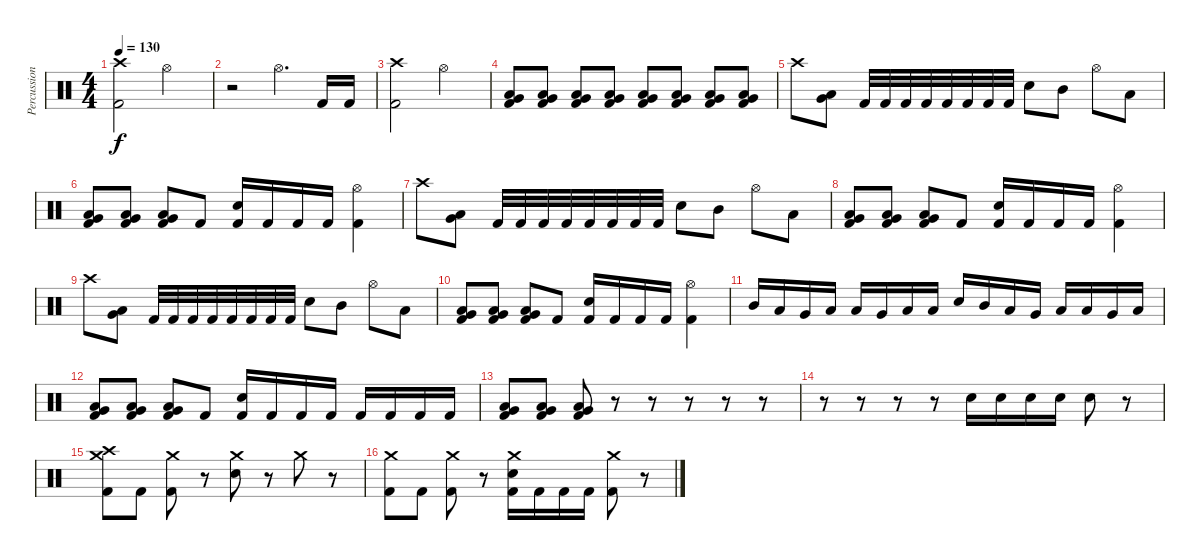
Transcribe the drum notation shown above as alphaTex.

\track ("Percussion" "Percussion") {instrument percussion}
\staff {score}
\articulation defaults
\ts (4 4)
\tempo 130
\clef neutral
\ks c
("Crash high (hit)" "Kick (hit) 2").2{dy f} "Hi-Hat (open)".2 |
r.2 "Hi-Hat (open)".4{d} "Kick (hit) 2".16 "Kick (hit) 2".16 |
("Crash high (hit)" "Kick (hit) 2").2 "Hi-Hat (open)".2 |
("Very Low Tom (hit)" "Low Floor Tom (hit)" "Kick (hit) 2").8 ("Very Low Tom (hit)" "Low Floor Tom (hit)" "Kick (hit) 2").8 ("Very Low Tom (hit)" "Low Floor Tom (hit)" "Kick (hit) 2").8 ("Very Low Tom (hit)" "Low Floor Tom (hit)" "Kick (hit) 2").8 ("Very Low Tom (hit)" "Low Floor Tom (hit)" "Kick (hit) 2").8 ("Very Low Tom (hit)" "Low Floor Tom (hit)" "Kick (hit) 2").8 ("Very Low Tom (hit)" "Low Floor Tom (hit)" "Kick (hit) 2").8 ("Very Low Tom (hit)" "Low Floor Tom (hit)" "Kick (hit) 2").8 |
"Crash high (hit)".8 ("Very Low Tom (hit)" "Low Floor Tom (hit)").8 "Kick (hit) 2".32 "Kick (hit) 2".32 "Kick (hit) 2".32 "Kick (hit) 2".32 "Kick (hit) 2".32 "Kick (hit) 2".32 "Kick (hit) 2".32 "Kick (hit) 2".32 "Electric Snare (hit)".8 "Mid Tom (hit)".8 "Hi-Hat (open)".8 "Low Tom (hit)".8 |
("Very Low Tom (hit)" "Low Floor Tom (hit)" "Kick (hit) 2").8 ("Very Low Tom (hit)" "Low Floor Tom (hit)" "Kick (hit) 2").8 ("Very Low Tom (hit)" "Low Floor Tom (hit)" "Kick (hit) 2").8 "Kick (hit) 2".8 ("Electric Snare (hit)" "Kick (hit) 2").16 "Kick (hit) 2".16 "Kick (hit) 2".16 "Kick (hit) 2".16 ("Hi-Hat (open)" "Kick (hit) 2").4 |
"Crash high (hit)".8 ("Very Low Tom (hit)" "Low Floor Tom (hit)").8 "Kick (hit) 2".32 "Kick (hit) 2".32 "Kick (hit) 2".32 "Kick (hit) 2".32 "Kick (hit) 2".32 "Kick (hit) 2".32 "Kick (hit) 2".32 "Kick (hit) 2".32 "Electric Snare (hit)".8 "Mid Tom (hit)".8 "Hi-Hat (open)".8 "Low Tom (hit)".8 |
("Very Low Tom (hit)" "Low Floor Tom (hit)" "Kick (hit) 2").8 ("Very Low Tom (hit)" "Low Floor Tom (hit)" "Kick (hit) 2").8 ("Very Low Tom (hit)" "Low Floor Tom (hit)" "Kick (hit) 2").8 "Kick (hit) 2".8 ("Electric Snare (hit)" "Kick (hit) 2").16 "Kick (hit) 2".16 "Kick (hit) 2".16 "Kick (hit) 2".16 ("Hi-Hat (open)" "Kick (hit) 2").4 |
"Crash high (hit)".8 ("Very Low Tom (hit)" "Low Floor Tom (hit)").8 "Kick (hit) 2".32 "Kick (hit) 2".32 "Kick (hit) 2".32 "Kick (hit) 2".32 "Kick (hit) 2".32 "Kick (hit) 2".32 "Kick (hit) 2".32 "Kick (hit) 2".32 "Electric Snare (hit)".8 "Mid Tom (hit)".8 "Hi-Hat (open)".8 "Low Tom (hit)".8 |
("Very Low Tom (hit)" "Low Floor Tom (hit)" "Kick (hit) 2").8 ("Very Low Tom (hit)" "Low Floor Tom (hit)" "Kick (hit) 2").8 ("Very Low Tom (hit)" "Low Floor Tom (hit)" "Kick (hit) 2").8 "Kick (hit) 2".8 ("Electric Snare (hit)" "Kick (hit) 2").16 "Kick (hit) 2".16 "Kick (hit) 2".16 "Kick (hit) 2".16 ("Hi-Hat (open)" "Kick (hit) 2").4 |
"Mid Tom (hit)".16 "Low Tom (hit)".16 "Very Low Tom (hit)".16 "Low Floor Tom (hit)".16 "Low Tom (hit)".16 "Very Low Tom (hit)".16 "Low Floor Tom (hit)".16 "Low Tom (hit)".16 "Electric Snare (hit)".16 "Mid Tom (hit)".16 "Low Tom (hit)".16 "Very Low Tom (hit)".16 "Low Floor Tom (hit)".16 "Low Tom (hit)".16 "Very Low Tom (hit)".16 "Low Floor Tom (hit)".16 |
("Very Low Tom (hit)" "Low Floor Tom (hit)" "Kick (hit) 2").8 ("Very Low Tom (hit)" "Low Floor Tom (hit)" "Kick (hit) 2").8 ("Very Low Tom (hit)" "Low Floor Tom (hit)" "Kick (hit) 2").8 "Kick (hit) 2".8 ("Electric Snare (hit)" "Kick (hit) 2").16 "Kick (hit) 2".16 "Kick (hit) 2".16 "Kick (hit) 2".16 "Kick (hit) 2".16 "Kick (hit) 2".16 "Kick (hit) 2".16 "Kick (hit) 2".16 |
("Very Low Tom (hit)" "Low Floor Tom (hit)" "Kick (hit) 2").8 ("Very Low Tom (hit)" "Low Floor Tom (hit)" "Kick (hit) 2").8 ("Very Low Tom (hit)" "Low Floor Tom (hit)" "Kick (hit) 2").8 r.8 r.8 r.8 r.8 r.8 |
r.8 r.8 r.8 r.8 "Electric Snare (hit)".16 "Electric Snare (hit)".16 "Electric Snare (hit)".16 "Electric Snare (hit)".16 "Electric Snare (hit)".8 r.8 |
("Crash high (hit)" "Crash medium (hit)" "Kick (hit) 2").8 "Kick (hit) 2".8 ("Crash medium (hit)" "Kick (hit) 2").8 r.8 ("Crash medium (hit)" "Electric Snare (hit)").8 r.8 "Crash medium (hit)".8 r.8 |
("Crash medium (hit)" "Kick (hit) 2").8 "Kick (hit) 2".8 ("Crash medium (hit)" "Kick (hit) 2").8 r.8 ("Crash medium (hit)" "Electric Snare (hit)" "Kick (hit) 2").16 "Kick (hit) 2".16 "Kick (hit) 2".16 "Kick (hit) 2".16 ("Crash medium (hit)" "Kick (hit) 2").8 r.8
